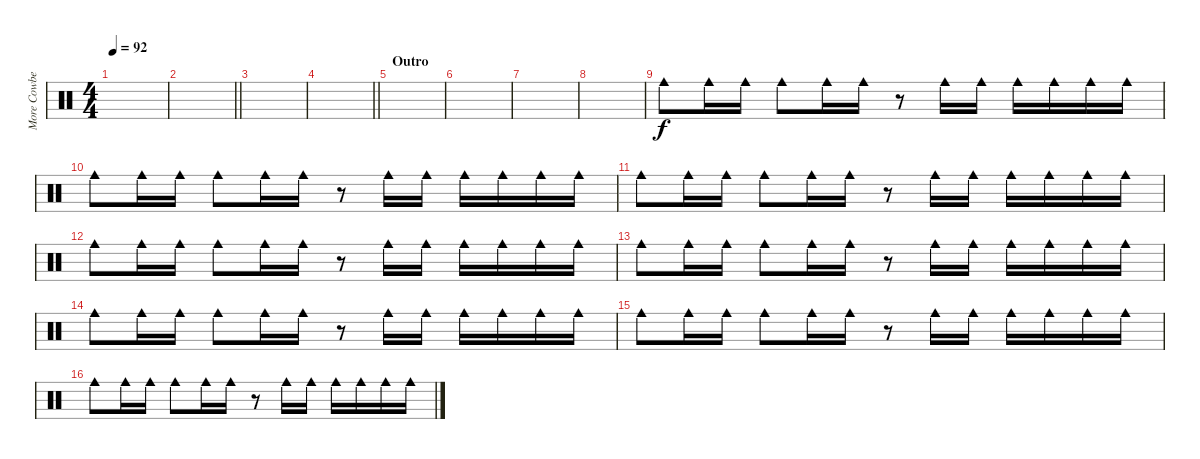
\track ("More Cowbell!" "More Cowbe") {instrument percussion}
\staff {score}
\articulation defaults
\ts (4 4)
\tempo 92
\clef neutral
\ks c
|
\barLineRight lightlight
|
|
\barLineRight lightlight
|
\section ("" "Outro")
|
|
|
|
"Cowbell medium (hit)".8{volume 9} "Cowbell medium (hit)".16 "Cowbell medium (hit)".16 "Cowbell medium (hit)".8 "Cowbell medium (hit)".16 "Cowbell medium (hit)".16 r.8 "Cowbell medium (hit)".16 "Cowbell medium (hit)".16 "Cowbell medium (hit)".16 "Cowbell medium (hit)".16 "Cowbell medium (hit)".16 "Cowbell medium (hit)".16 |
"Cowbell medium (hit)".8 "Cowbell medium (hit)".16 "Cowbell medium (hit)".16 "Cowbell medium (hit)".8 "Cowbell medium (hit)".16 "Cowbell medium (hit)".16 r.8 "Cowbell medium (hit)".16 "Cowbell medium (hit)".16 "Cowbell medium (hit)".16 "Cowbell medium (hit)".16 "Cowbell medium (hit)".16 "Cowbell medium (hit)".16 |
"Cowbell medium (hit)".8 "Cowbell medium (hit)".16 "Cowbell medium (hit)".16 "Cowbell medium (hit)".8 "Cowbell medium (hit)".16 "Cowbell medium (hit)".16 r.8 "Cowbell medium (hit)".16 "Cowbell medium (hit)".16 "Cowbell medium (hit)".16 "Cowbell medium (hit)".16 "Cowbell medium (hit)".16 "Cowbell medium (hit)".16 |
"Cowbell medium (hit)".8 "Cowbell medium (hit)".16 "Cowbell medium (hit)".16 "Cowbell medium (hit)".8 "Cowbell medium (hit)".16 "Cowbell medium (hit)".16 r.8 "Cowbell medium (hit)".16 "Cowbell medium (hit)".16 "Cowbell medium (hit)".16 "Cowbell medium (hit)".16 "Cowbell medium (hit)".16 "Cowbell medium (hit)".16 |
"Cowbell medium (hit)".8 "Cowbell medium (hit)".16 "Cowbell medium (hit)".16 "Cowbell medium (hit)".8 "Cowbell medium (hit)".16 "Cowbell medium (hit)".16 r.8 "Cowbell medium (hit)".16 "Cowbell medium (hit)".16 "Cowbell medium (hit)".16 "Cowbell medium (hit)".16 "Cowbell medium (hit)".16 "Cowbell medium (hit)".16 |
"Cowbell medium (hit)".8 "Cowbell medium (hit)".16 "Cowbell medium (hit)".16 "Cowbell medium (hit)".8 "Cowbell medium (hit)".16 "Cowbell medium (hit)".16 r.8 "Cowbell medium (hit)".16 "Cowbell medium (hit)".16 "Cowbell medium (hit)".16 "Cowbell medium (hit)".16 "Cowbell medium (hit)".16 "Cowbell medium (hit)".16 |
"Cowbell medium (hit)".8 "Cowbell medium (hit)".16 "Cowbell medium (hit)".16 "Cowbell medium (hit)".8 "Cowbell medium (hit)".16 "Cowbell medium (hit)".16 r.8 "Cowbell medium (hit)".16 "Cowbell medium (hit)".16 "Cowbell medium (hit)".16 "Cowbell medium (hit)".16 "Cowbell medium (hit)".16 "Cowbell medium (hit)".16 |
"Cowbell medium (hit)".8 "Cowbell medium (hit)".16 "Cowbell medium (hit)".16 "Cowbell medium (hit)".8 "Cowbell medium (hit)".16 "Cowbell medium (hit)".16 r.8 "Cowbell medium (hit)".16 "Cowbell medium (hit)".16 "Cowbell medium (hit)".16 "Cowbell medium (hit)".16 "Cowbell medium (hit)".16 "Cowbell medium (hit)".16
